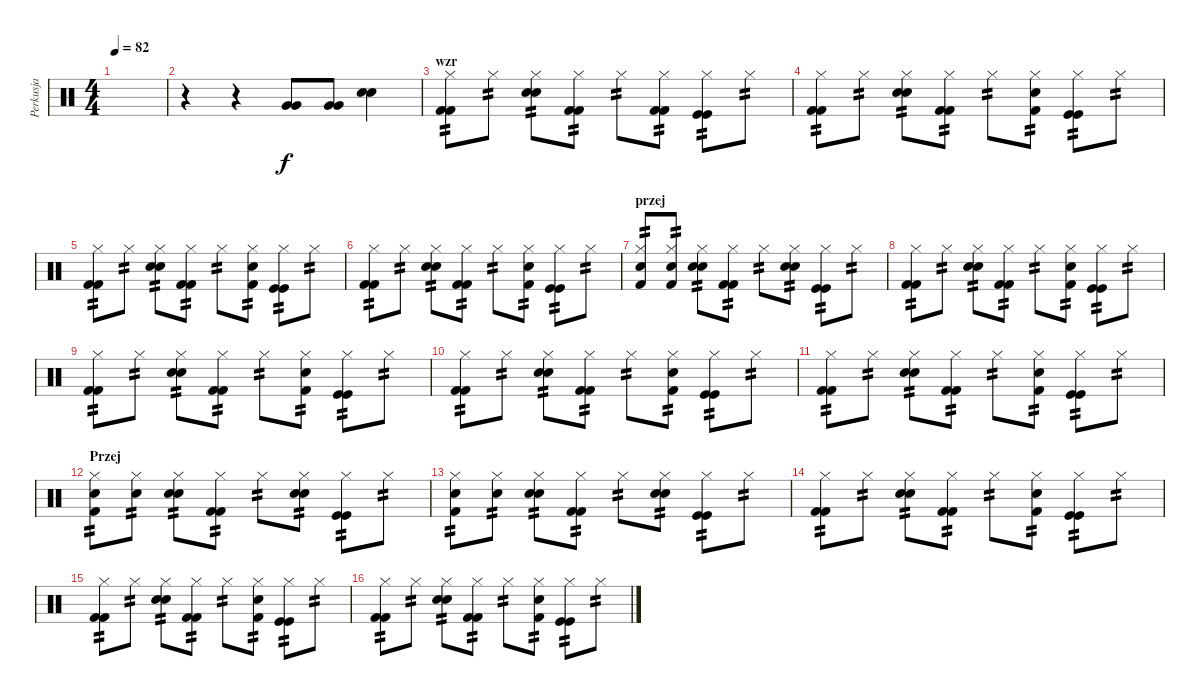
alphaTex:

\track ("Perkusja" "Perkusja") {instrument percussion}
\staff {score}
\articulation defaults
\ts (4 4)
\tempo 82
\clef neutral
\ks c
|
r.4 r.4 ("Very Low Tom (hit)" "Very Low Tom (hit)").8 ("Very Low Tom (hit)" "Very Low Tom (hit)").8 ("Electric Snare (hit)" "Electric Snare (hit)").4 |
\section ("" "wzr")
("Hi-Hat (closed)" "Kick (hit) 2" "Kick (hit) 2").8{tp 2} "Hi-Hat (closed)".8{tp 2} ("Hi-Hat (closed)" "Electric Snare (hit)" "Electric Snare (hit)").8{tp 2} ("Hi-Hat (closed)" "Kick (hit) 2" "Kick (hit) 2").8{tp 2} "Hi-Hat (closed)".8{tp 2} ("Hi-Hat (closed)" "Kick (hit) 2" "Kick (hit) 2").8{tp 2} ("Hi-Hat (closed)" "Kick (hit)" "Kick (hit)").8{tp 2} "Hi-Hat (closed)".8{tp 2} |
("Hi-Hat (closed)" "Kick (hit) 2" "Kick (hit) 2").8{tp 2} "Hi-Hat (closed)".8{tp 2} ("Hi-Hat (closed)" "Electric Snare (hit)" "Electric Snare (hit)").8{tp 2} ("Hi-Hat (closed)" "Kick (hit) 2" "Kick (hit) 2").8{tp 2} "Hi-Hat (closed)".8{tp 2} ("Hi-Hat (closed)" "Snare (hit) 2" "Kick (hit) 2").8{tp 2} ("Hi-Hat (closed)" "Kick (hit)" "Kick (hit)").8{tp 2} "Hi-Hat (closed)".8{tp 2} |
("Hi-Hat (closed)" "Kick (hit) 2" "Kick (hit) 2").8{tp 2} "Hi-Hat (closed)".8{tp 2} ("Hi-Hat (closed)" "Electric Snare (hit)" "Electric Snare (hit)").8{tp 2} ("Hi-Hat (closed)" "Kick (hit) 2" "Kick (hit) 2").8{tp 2} "Hi-Hat (closed)".8{tp 2} ("Hi-Hat (closed)" "Snare (hit) 2" "Kick (hit) 2").8{tp 2} ("Hi-Hat (closed)" "Kick (hit)" "Kick (hit)").8{tp 2} "Hi-Hat (closed)".8{tp 2} |
("Hi-Hat (closed)" "Kick (hit) 2" "Kick (hit) 2").8{tp 2} "Hi-Hat (closed)".8{tp 2} ("Hi-Hat (closed)" "Electric Snare (hit)" "Electric Snare (hit)").8{tp 2} ("Hi-Hat (closed)" "Kick (hit) 2" "Kick (hit) 2").8{tp 2} "Hi-Hat (closed)".8{tp 2} ("Hi-Hat (closed)" "Snare (hit) 2" "Kick (hit) 2").8{tp 2} ("Hi-Hat (closed)" "Kick (hit)" "Kick (hit)").8{tp 2} "Hi-Hat (closed)".8{tp 2} |
\section ("" "przej")
("Hi-Hat (closed)" "Electric Snare (hit)" "Kick (hit) 2").8{tp 2} ("Hi-Hat (closed)" "Electric Snare (hit)" "Kick (hit) 2").8{tp 2} ("Hi-Hat (closed)" "Electric Snare (hit)" "Electric Snare (hit)").8{tp 2} ("Hi-Hat (closed)" "Kick (hit) 2" "Kick (hit) 2").8{tp 2} "Hi-Hat (closed)".8{tp 2} ("Hi-Hat (closed)" "Electric Snare (hit)" "Electric Snare (hit)").8{tp 2} ("Hi-Hat (closed)" "Kick (hit)" "Kick (hit)").8{tp 2} "Hi-Hat (closed)".8{tp 2} |
("Hi-Hat (closed)" "Kick (hit) 2" "Kick (hit) 2").8{tp 2} "Hi-Hat (closed)".8{tp 2} ("Hi-Hat (closed)" "Electric Snare (hit)" "Electric Snare (hit)").8{tp 2} ("Hi-Hat (closed)" "Kick (hit) 2" "Kick (hit) 2").8{tp 2} "Hi-Hat (closed)".8{tp 2} ("Hi-Hat (closed)" "Snare (hit) 2" "Kick (hit) 2").8{tp 2} ("Hi-Hat (closed)" "Kick (hit)" "Kick (hit)").8{tp 2} "Hi-Hat (closed)".8{tp 2} |
("Hi-Hat (closed)" "Kick (hit) 2" "Kick (hit) 2").8{tp 2} "Hi-Hat (closed)".8{tp 2} ("Hi-Hat (closed)" "Electric Snare (hit)" "Electric Snare (hit)").8{tp 2} ("Hi-Hat (closed)" "Kick (hit) 2" "Kick (hit) 2").8{tp 2} "Hi-Hat (closed)".8{tp 2} ("Hi-Hat (closed)" "Snare (hit) 2" "Kick (hit) 2").8{tp 2} ("Hi-Hat (closed)" "Kick (hit)" "Kick (hit)").8{tp 2} "Hi-Hat (closed)".8{tp 2} |
("Hi-Hat (closed)" "Kick (hit) 2" "Kick (hit) 2").8{tp 2} "Hi-Hat (closed)".8{tp 2} ("Hi-Hat (closed)" "Electric Snare (hit)" "Electric Snare (hit)").8{tp 2} ("Hi-Hat (closed)" "Kick (hit) 2" "Kick (hit) 2").8{tp 2} "Hi-Hat (closed)".8{tp 2} ("Hi-Hat (closed)" "Snare (hit) 2" "Kick (hit) 2").8{tp 2} ("Hi-Hat (closed)" "Kick (hit)" "Kick (hit)").8{tp 2} "Hi-Hat (closed)".8{tp 2} |
("Hi-Hat (closed)" "Kick (hit) 2" "Kick (hit) 2").8{tp 2} "Hi-Hat (closed)".8{tp 2} ("Hi-Hat (closed)" "Electric Snare (hit)" "Electric Snare (hit)").8{tp 2} ("Hi-Hat (closed)" "Kick (hit) 2" "Kick (hit) 2").8{tp 2} "Hi-Hat (closed)".8{tp 2} ("Hi-Hat (closed)" "Snare (hit) 2" "Kick (hit) 2").8{tp 2} ("Hi-Hat (closed)" "Kick (hit)" "Kick (hit)").8{tp 2} "Hi-Hat (closed)".8{tp 2} |
\section ("" "Przej")
("Hi-Hat (closed)" "Electric Snare (hit)" "Kick (hit) 2").8{tp 2} ("Hi-Hat (closed)" "Electric Snare (hit)").8{tp 2} ("Hi-Hat (closed)" "Electric Snare (hit)" "Electric Snare (hit)").8{tp 2} ("Hi-Hat (closed)" "Kick (hit) 2" "Kick (hit) 2").8{tp 2} "Hi-Hat (closed)".8{tp 2} ("Hi-Hat (closed)" "Electric Snare (hit)" "Electric Snare (hit)").8{tp 2} ("Hi-Hat (closed)" "Kick (hit)" "Kick (hit)").8{tp 2} "Hi-Hat (closed)".8{tp 2} |
("Hi-Hat (closed)" "Electric Snare (hit)" "Kick (hit) 2").8{tp 2} ("Hi-Hat (closed)" "Electric Snare (hit)").8{tp 2} ("Hi-Hat (closed)" "Electric Snare (hit)" "Electric Snare (hit)").8{tp 2} ("Hi-Hat (closed)" "Kick (hit) 2" "Kick (hit) 2").8{tp 2} "Hi-Hat (closed)".8{tp 2} ("Hi-Hat (closed)" "Electric Snare (hit)" "Electric Snare (hit)").8{tp 2} ("Hi-Hat (closed)" "Kick (hit)" "Kick (hit)").8{tp 2} "Hi-Hat (closed)".8{tp 2} |
("Hi-Hat (closed)" "Kick (hit) 2" "Kick (hit) 2").8{tp 2} "Hi-Hat (closed)".8{tp 2} ("Hi-Hat (closed)" "Electric Snare (hit)" "Electric Snare (hit)").8{tp 2} ("Hi-Hat (closed)" "Kick (hit) 2" "Kick (hit) 2").8{tp 2} "Hi-Hat (closed)".8{tp 2} ("Hi-Hat (closed)" "Snare (hit) 2" "Kick (hit) 2").8{tp 2} ("Hi-Hat (closed)" "Kick (hit)" "Kick (hit)").8{tp 2} "Hi-Hat (closed)".8{tp 2} |
("Hi-Hat (closed)" "Kick (hit) 2" "Kick (hit) 2").8{tp 2} "Hi-Hat (closed)".8{tp 2} ("Hi-Hat (closed)" "Electric Snare (hit)" "Electric Snare (hit)").8{tp 2} ("Hi-Hat (closed)" "Kick (hit) 2" "Kick (hit) 2").8{tp 2} "Hi-Hat (closed)".8{tp 2} ("Hi-Hat (closed)" "Snare (hit) 2" "Kick (hit) 2").8{tp 2} ("Hi-Hat (closed)" "Kick (hit)" "Kick (hit)").8{tp 2} "Hi-Hat (closed)".8{tp 2} |
("Hi-Hat (closed)" "Kick (hit) 2" "Kick (hit) 2").8{tp 2} "Hi-Hat (closed)".8{tp 2} ("Hi-Hat (closed)" "Electric Snare (hit)" "Electric Snare (hit)").8{tp 2} ("Hi-Hat (closed)" "Kick (hit) 2" "Kick (hit) 2").8{tp 2} "Hi-Hat (closed)".8{tp 2} ("Hi-Hat (closed)" "Snare (hit) 2" "Kick (hit) 2").8{tp 2} ("Hi-Hat (closed)" "Kick (hit)" "Kick (hit)").8{tp 2} "Hi-Hat (closed)".8{tp 2}
